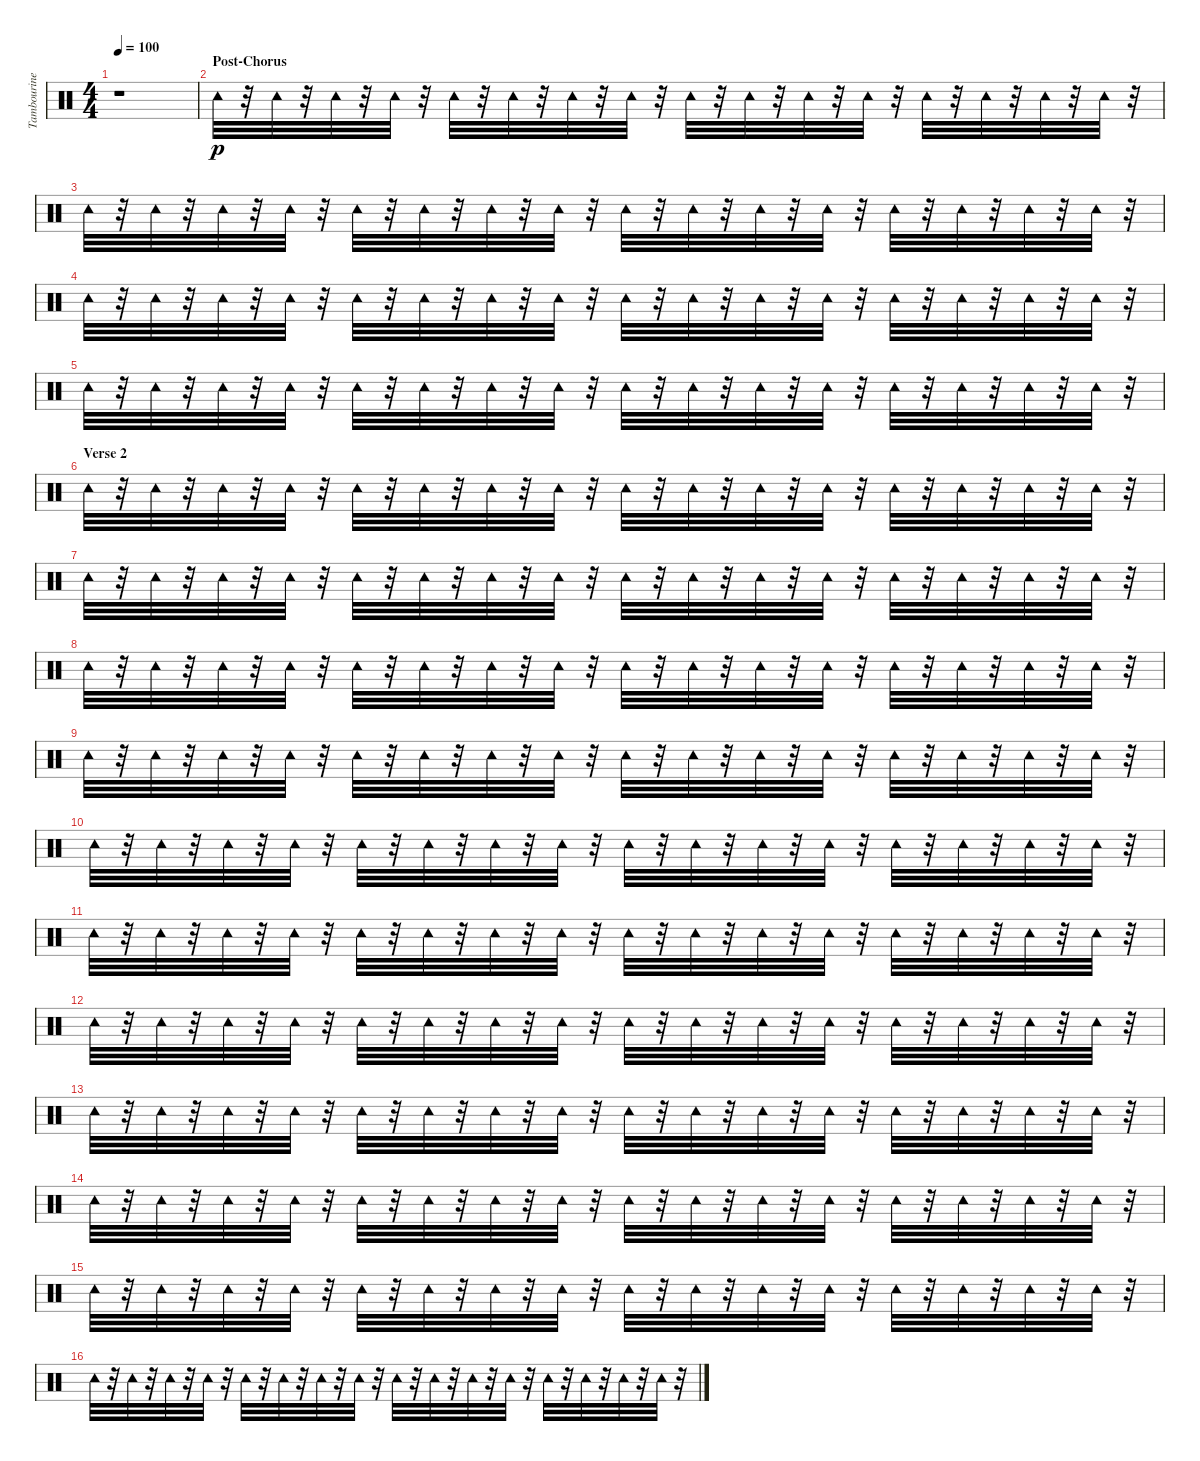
\track ("Tambourine" "Tambourine") {instrument percussion}
\staff {score}
\articulation defaults
\ts (4 4)
\tempo 100
\clef neutral
\ks c
r.1{dy p} |
\section ("" "Post-Chorus")
"Tambourine (hit)".32 r.32 "Tambourine (hit)".32 r.32 "Tambourine (hit)".32 r.32 "Tambourine (hit)".32 r.32 "Tambourine (hit)".32 r.32 "Tambourine (hit)".32 r.32 "Tambourine (hit)".32 r.32 "Tambourine (hit)".32 r.32 "Tambourine (hit)".32 r.32 "Tambourine (hit)".32 r.32 "Tambourine (hit)".32 r.32 "Tambourine (hit)".32 r.32 "Tambourine (hit)".32 r.32 "Tambourine (hit)".32 r.32 "Tambourine (hit)".32 r.32 "Tambourine (hit)".32 r.32 |
"Tambourine (hit)".32 r.32 "Tambourine (hit)".32 r.32 "Tambourine (hit)".32 r.32 "Tambourine (hit)".32 r.32 "Tambourine (hit)".32 r.32 "Tambourine (hit)".32 r.32 "Tambourine (hit)".32 r.32 "Tambourine (hit)".32 r.32 "Tambourine (hit)".32 r.32 "Tambourine (hit)".32 r.32 "Tambourine (hit)".32 r.32 "Tambourine (hit)".32 r.32 "Tambourine (hit)".32 r.32 "Tambourine (hit)".32 r.32 "Tambourine (hit)".32 r.32 "Tambourine (hit)".32 r.32 |
"Tambourine (hit)".32 r.32 "Tambourine (hit)".32 r.32 "Tambourine (hit)".32 r.32 "Tambourine (hit)".32 r.32 "Tambourine (hit)".32 r.32 "Tambourine (hit)".32 r.32 "Tambourine (hit)".32 r.32 "Tambourine (hit)".32 r.32 "Tambourine (hit)".32 r.32 "Tambourine (hit)".32 r.32 "Tambourine (hit)".32 r.32 "Tambourine (hit)".32 r.32 "Tambourine (hit)".32 r.32 "Tambourine (hit)".32 r.32 "Tambourine (hit)".32 r.32 "Tambourine (hit)".32 r.32 |
"Tambourine (hit)".32 r.32 "Tambourine (hit)".32 r.32 "Tambourine (hit)".32 r.32 "Tambourine (hit)".32 r.32 "Tambourine (hit)".32 r.32 "Tambourine (hit)".32 r.32 "Tambourine (hit)".32 r.32 "Tambourine (hit)".32 r.32 "Tambourine (hit)".32 r.32 "Tambourine (hit)".32 r.32 "Tambourine (hit)".32 r.32 "Tambourine (hit)".32 r.32 "Tambourine (hit)".32 r.32 "Tambourine (hit)".32 r.32 "Tambourine (hit)".32 r.32 "Tambourine (hit)".32 r.32 |
\section ("" "Verse 2")
"Tambourine (hit)".32 r.32 "Tambourine (hit)".32 r.32 "Tambourine (hit)".32 r.32 "Tambourine (hit)".32 r.32 "Tambourine (hit)".32 r.32 "Tambourine (hit)".32 r.32 "Tambourine (hit)".32 r.32 "Tambourine (hit)".32 r.32 "Tambourine (hit)".32 r.32 "Tambourine (hit)".32 r.32 "Tambourine (hit)".32 r.32 "Tambourine (hit)".32 r.32 "Tambourine (hit)".32 r.32 "Tambourine (hit)".32 r.32 "Tambourine (hit)".32 r.32 "Tambourine (hit)".32 r.32 |
"Tambourine (hit)".32 r.32 "Tambourine (hit)".32 r.32 "Tambourine (hit)".32 r.32 "Tambourine (hit)".32 r.32 "Tambourine (hit)".32 r.32 "Tambourine (hit)".32 r.32 "Tambourine (hit)".32 r.32 "Tambourine (hit)".32 r.32 "Tambourine (hit)".32 r.32 "Tambourine (hit)".32 r.32 "Tambourine (hit)".32 r.32 "Tambourine (hit)".32 r.32 "Tambourine (hit)".32 r.32 "Tambourine (hit)".32 r.32 "Tambourine (hit)".32 r.32 "Tambourine (hit)".32 r.32 |
"Tambourine (hit)".32 r.32 "Tambourine (hit)".32 r.32 "Tambourine (hit)".32 r.32 "Tambourine (hit)".32 r.32 "Tambourine (hit)".32 r.32 "Tambourine (hit)".32 r.32 "Tambourine (hit)".32 r.32 "Tambourine (hit)".32 r.32 "Tambourine (hit)".32 r.32 "Tambourine (hit)".32 r.32 "Tambourine (hit)".32 r.32 "Tambourine (hit)".32 r.32 "Tambourine (hit)".32 r.32 "Tambourine (hit)".32 r.32 "Tambourine (hit)".32 r.32 "Tambourine (hit)".32 r.32 |
"Tambourine (hit)".32 r.32 "Tambourine (hit)".32 r.32 "Tambourine (hit)".32 r.32 "Tambourine (hit)".32 r.32 "Tambourine (hit)".32 r.32 "Tambourine (hit)".32 r.32 "Tambourine (hit)".32 r.32 "Tambourine (hit)".32 r.32 "Tambourine (hit)".32 r.32 "Tambourine (hit)".32 r.32 "Tambourine (hit)".32 r.32 "Tambourine (hit)".32 r.32 "Tambourine (hit)".32 r.32 "Tambourine (hit)".32 r.32 "Tambourine (hit)".32 r.32 "Tambourine (hit)".32 r.32 |
"Tambourine (hit)".32 r.32 "Tambourine (hit)".32 r.32 "Tambourine (hit)".32 r.32 "Tambourine (hit)".32 r.32 "Tambourine (hit)".32 r.32 "Tambourine (hit)".32 r.32 "Tambourine (hit)".32 r.32 "Tambourine (hit)".32 r.32 "Tambourine (hit)".32 r.32 "Tambourine (hit)".32 r.32 "Tambourine (hit)".32 r.32 "Tambourine (hit)".32 r.32 "Tambourine (hit)".32 r.32 "Tambourine (hit)".32 r.32 "Tambourine (hit)".32 r.32 "Tambourine (hit)".32 r.32 |
"Tambourine (hit)".32 r.32 "Tambourine (hit)".32 r.32 "Tambourine (hit)".32 r.32 "Tambourine (hit)".32 r.32 "Tambourine (hit)".32 r.32 "Tambourine (hit)".32 r.32 "Tambourine (hit)".32 r.32 "Tambourine (hit)".32 r.32 "Tambourine (hit)".32 r.32 "Tambourine (hit)".32 r.32 "Tambourine (hit)".32 r.32 "Tambourine (hit)".32 r.32 "Tambourine (hit)".32 r.32 "Tambourine (hit)".32 r.32 "Tambourine (hit)".32 r.32 "Tambourine (hit)".32 r.32 |
"Tambourine (hit)".32 r.32 "Tambourine (hit)".32 r.32 "Tambourine (hit)".32 r.32 "Tambourine (hit)".32 r.32 "Tambourine (hit)".32 r.32 "Tambourine (hit)".32 r.32 "Tambourine (hit)".32 r.32 "Tambourine (hit)".32 r.32 "Tambourine (hit)".32 r.32 "Tambourine (hit)".32 r.32 "Tambourine (hit)".32 r.32 "Tambourine (hit)".32 r.32 "Tambourine (hit)".32 r.32 "Tambourine (hit)".32 r.32 "Tambourine (hit)".32 r.32 "Tambourine (hit)".32 r.32 |
"Tambourine (hit)".32 r.32 "Tambourine (hit)".32 r.32 "Tambourine (hit)".32 r.32 "Tambourine (hit)".32 r.32 "Tambourine (hit)".32 r.32 "Tambourine (hit)".32 r.32 "Tambourine (hit)".32 r.32 "Tambourine (hit)".32 r.32 "Tambourine (hit)".32 r.32 "Tambourine (hit)".32 r.32 "Tambourine (hit)".32 r.32 "Tambourine (hit)".32 r.32 "Tambourine (hit)".32 r.32 "Tambourine (hit)".32 r.32 "Tambourine (hit)".32 r.32 "Tambourine (hit)".32 r.32 |
"Tambourine (hit)".32 r.32 "Tambourine (hit)".32 r.32 "Tambourine (hit)".32 r.32 "Tambourine (hit)".32 r.32 "Tambourine (hit)".32 r.32 "Tambourine (hit)".32 r.32 "Tambourine (hit)".32 r.32 "Tambourine (hit)".32 r.32 "Tambourine (hit)".32 r.32 "Tambourine (hit)".32 r.32 "Tambourine (hit)".32 r.32 "Tambourine (hit)".32 r.32 "Tambourine (hit)".32 r.32 "Tambourine (hit)".32 r.32 "Tambourine (hit)".32 r.32 "Tambourine (hit)".32 r.32 |
"Tambourine (hit)".32 r.32 "Tambourine (hit)".32 r.32 "Tambourine (hit)".32 r.32 "Tambourine (hit)".32 r.32 "Tambourine (hit)".32 r.32 "Tambourine (hit)".32 r.32 "Tambourine (hit)".32 r.32 "Tambourine (hit)".32 r.32 "Tambourine (hit)".32 r.32 "Tambourine (hit)".32 r.32 "Tambourine (hit)".32 r.32 "Tambourine (hit)".32 r.32 "Tambourine (hit)".32 r.32 "Tambourine (hit)".32 r.32 "Tambourine (hit)".32 r.32 "Tambourine (hit)".32 r.32 |
"Tambourine (hit)".32 r.32 "Tambourine (hit)".32 r.32 "Tambourine (hit)".32 r.32 "Tambourine (hit)".32 r.32 "Tambourine (hit)".32 r.32 "Tambourine (hit)".32 r.32 "Tambourine (hit)".32 r.32 "Tambourine (hit)".32 r.32 "Tambourine (hit)".32 r.32 "Tambourine (hit)".32 r.32 "Tambourine (hit)".32 r.32 "Tambourine (hit)".32 r.32 "Tambourine (hit)".32 r.32 "Tambourine (hit)".32 r.32 "Tambourine (hit)".32 r.32 "Tambourine (hit)".32 r.32
